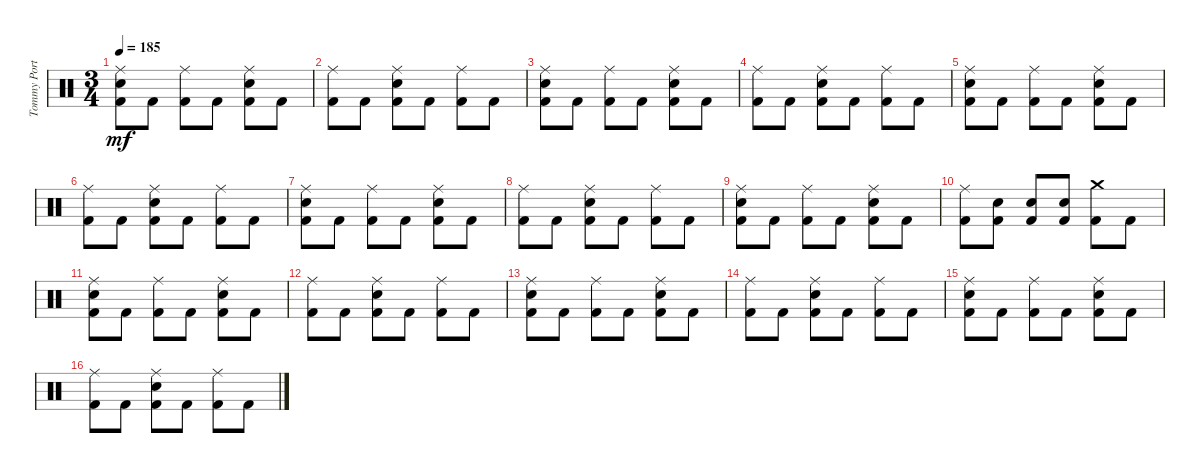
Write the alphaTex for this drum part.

\track ("Tommy Portino" "Tommy Port") {instrument percussion}
\staff {score}
\articulation defaults
\ts (3 4)
\tempo 185
\clef neutral
\ks c
("Ride (middle)" "Snare (hit) 2" "Kick (hit) 2").8{dy mf} "Kick (hit) 2".8 ("Ride (middle)" "Kick (hit) 2").8 "Kick (hit) 2".8 ("Ride (middle)" "Snare (hit) 2" "Kick (hit) 2").8 "Kick (hit) 2".8 |
("Ride (middle)" "Kick (hit) 2").8 "Kick (hit) 2".8 ("Ride (middle)" "Snare (hit) 2" "Kick (hit) 2").8 "Kick (hit) 2".8 ("Ride (middle)" "Kick (hit) 2").8 "Kick (hit) 2".8 |
("Ride (middle)" "Snare (hit) 2" "Kick (hit) 2").8 "Kick (hit) 2".8 ("Ride (middle)" "Kick (hit) 2").8 "Kick (hit) 2".8 ("Ride (middle)" "Snare (hit) 2" "Kick (hit) 2").8 "Kick (hit) 2".8 |
("Ride (middle)" "Kick (hit) 2").8 "Kick (hit) 2".8 ("Ride (middle)" "Snare (hit) 2" "Kick (hit) 2").8 "Kick (hit) 2".8 ("Ride (middle)" "Kick (hit) 2").8 "Kick (hit) 2".8 |
("Ride (middle)" "Snare (hit) 2" "Kick (hit) 2").8 "Kick (hit) 2".8 ("Ride (middle)" "Kick (hit) 2").8 "Kick (hit) 2".8 ("Ride (middle)" "Snare (hit) 2" "Kick (hit) 2").8 "Kick (hit) 2".8 |
("Ride (middle)" "Kick (hit) 2").8 "Kick (hit) 2".8 ("Ride (middle)" "Snare (hit) 2" "Kick (hit) 2").8 "Kick (hit) 2".8 ("Ride (middle)" "Kick (hit) 2").8 "Kick (hit) 2".8 |
("Ride (middle)" "Snare (hit) 2" "Kick (hit) 2").8 "Kick (hit) 2".8 ("Ride (middle)" "Kick (hit) 2").8 "Kick (hit) 2".8 ("Ride (middle)" "Snare (hit) 2" "Kick (hit) 2").8 "Kick (hit) 2".8 |
("Ride (middle)" "Kick (hit) 2").8 "Kick (hit) 2".8 ("Ride (middle)" "Snare (hit) 2" "Kick (hit) 2").8 "Kick (hit) 2".8 ("Ride (middle)" "Kick (hit) 2").8 "Kick (hit) 2".8 |
("Ride (middle)" "Snare (hit) 2" "Kick (hit) 2").8 "Kick (hit) 2".8 ("Ride (middle)" "Kick (hit) 2").8 "Kick (hit) 2".8 ("Ride (middle)" "Snare (hit) 2" "Kick (hit) 2").8 "Kick (hit) 2".8 |
("Ride (middle)" "Kick (hit) 2").8 ("Snare (hit) 2" "Kick (hit) 2").8 ("Snare (hit) 2" "Kick (hit) 2").8 ("Snare (hit) 2" "Kick (hit) 2").8 ("Crash medium (hit)" "Kick (hit) 2").8 "Kick (hit) 2".8 |
("Snare (hit) 2" "Ride (middle)" "Kick (hit) 2").8 "Kick (hit) 2".8 ("Ride (middle)" "Kick (hit) 2").8 "Kick (hit) 2".8 ("Ride (middle)" "Snare (hit) 2" "Kick (hit) 2").8 "Kick (hit) 2".8 |
("Ride (middle)" "Kick (hit) 2").8 "Kick (hit) 2".8 ("Ride (middle)" "Snare (hit) 2" "Kick (hit) 2").8 "Kick (hit) 2".8 ("Ride (middle)" "Kick (hit) 2").8 "Kick (hit) 2".8 |
("Ride (middle)" "Snare (hit) 2" "Kick (hit) 2").8 "Kick (hit) 2".8 ("Ride (middle)" "Kick (hit) 2").8 "Kick (hit) 2".8 ("Ride (middle)" "Snare (hit) 2" "Kick (hit) 2").8 "Kick (hit) 2".8 |
("Ride (middle)" "Kick (hit) 2").8 "Kick (hit) 2".8 ("Ride (middle)" "Snare (hit) 2" "Kick (hit) 2").8 "Kick (hit) 2".8 ("Ride (middle)" "Kick (hit) 2").8 "Kick (hit) 2".8 |
("Ride (middle)" "Snare (hit) 2" "Kick (hit) 2").8 "Kick (hit) 2".8 ("Ride (middle)" "Kick (hit) 2").8 "Kick (hit) 2".8 ("Ride (middle)" "Snare (hit) 2" "Kick (hit) 2").8 "Kick (hit) 2".8 |
("Ride (middle)" "Kick (hit) 2").8 "Kick (hit) 2".8 ("Ride (middle)" "Snare (hit) 2" "Kick (hit) 2").8 "Kick (hit) 2".8 ("Ride (middle)" "Kick (hit) 2").8 "Kick (hit) 2".8
